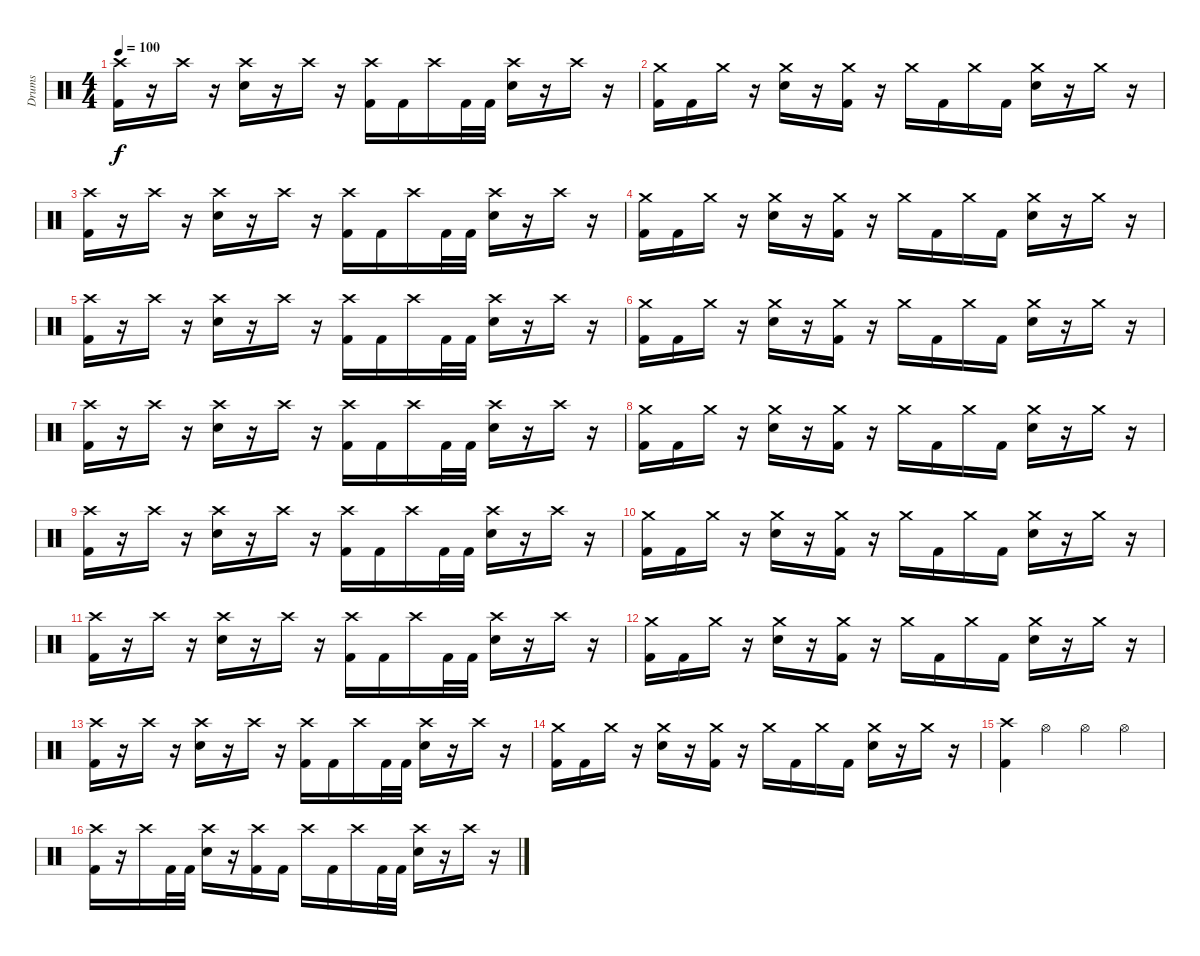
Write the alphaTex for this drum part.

\track ("Drums" "Drums") {instrument percussion}
\staff {score}
\articulation defaults
\ts (4 4)
\tempo 100
\clef neutral
\ks c
("Crash high (hit)" "Kick (hit) 2").16{dy f} r.16 "Crash high (hit)".16 r.16 ("Crash high (hit)" "Snare (hit) 2").16 r.16 "Crash high (hit)".16 r.16 ("Crash high (hit)" "Kick (hit) 2").16 "Kick (hit) 2".16 "Crash high (hit)".16 "Kick (hit) 2".32 "Kick (hit) 2".32 ("Crash high (hit)" "Snare (hit) 2").16 r.16 "Crash high (hit)".16 r.16 |
("Crash medium (hit)" "Kick (hit) 2").16 "Kick (hit) 2".16 "Crash medium (hit)".16 r.16 ("Crash medium (hit)" "Snare (hit) 2").16 r.16 ("Crash medium (hit)" "Kick (hit) 2").16 r.16 "Crash medium (hit)".16 "Kick (hit) 2".16 "Crash medium (hit)".16 "Kick (hit) 2".16 ("Crash medium (hit)" "Snare (hit) 2").16 r.16 "Crash medium (hit)".16 r.16 |
("Crash high (hit)" "Kick (hit) 2").16 r.16 "Crash high (hit)".16 r.16 ("Crash high (hit)" "Snare (hit) 2").16 r.16 "Crash high (hit)".16 r.16 ("Crash high (hit)" "Kick (hit) 2").16 "Kick (hit) 2".16 "Crash high (hit)".16 "Kick (hit) 2".32 "Kick (hit) 2".32 ("Crash high (hit)" "Snare (hit) 2").16 r.16 "Crash high (hit)".16 r.16 |
("Crash medium (hit)" "Kick (hit) 2").16 "Kick (hit) 2".16 "Crash medium (hit)".16 r.16 ("Crash medium (hit)" "Snare (hit) 2").16 r.16 ("Crash medium (hit)" "Kick (hit) 2").16 r.16 "Crash medium (hit)".16 "Kick (hit) 2".16 "Crash medium (hit)".16 "Kick (hit) 2".16 ("Crash medium (hit)" "Snare (hit) 2").16 r.16 "Crash medium (hit)".16 r.16 |
("Crash high (hit)" "Kick (hit) 2").16 r.16 "Crash high (hit)".16 r.16 ("Crash high (hit)" "Snare (hit) 2").16 r.16 "Crash high (hit)".16 r.16 ("Crash high (hit)" "Kick (hit) 2").16 "Kick (hit) 2".16 "Crash high (hit)".16 "Kick (hit) 2".32 "Kick (hit) 2".32 ("Crash high (hit)" "Snare (hit) 2").16 r.16 "Crash high (hit)".16 r.16 |
("Crash medium (hit)" "Kick (hit) 2").16 "Kick (hit) 2".16 "Crash medium (hit)".16 r.16 ("Crash medium (hit)" "Snare (hit) 2").16 r.16 ("Crash medium (hit)" "Kick (hit) 2").16 r.16 "Crash medium (hit)".16 "Kick (hit) 2".16 "Crash medium (hit)".16 "Kick (hit) 2".16 ("Crash medium (hit)" "Snare (hit) 2").16 r.16 "Crash medium (hit)".16 r.16 |
("Crash high (hit)" "Kick (hit) 2").16 r.16 "Crash high (hit)".16 r.16 ("Crash high (hit)" "Snare (hit) 2").16 r.16 "Crash high (hit)".16 r.16 ("Crash high (hit)" "Kick (hit) 2").16 "Kick (hit) 2".16 "Crash high (hit)".16 "Kick (hit) 2".32 "Kick (hit) 2".32 ("Crash high (hit)" "Snare (hit) 2").16 r.16 "Crash high (hit)".16 r.16 |
("Crash medium (hit)" "Kick (hit) 2").16 "Kick (hit) 2".16 "Crash medium (hit)".16 r.16 ("Crash medium (hit)" "Snare (hit) 2").16 r.16 ("Crash medium (hit)" "Kick (hit) 2").16 r.16 "Crash medium (hit)".16 "Kick (hit) 2".16 "Crash medium (hit)".16 "Kick (hit) 2".16 ("Crash medium (hit)" "Snare (hit) 2").16 r.16 "Crash medium (hit)".16 r.16 |
("Crash high (hit)" "Kick (hit) 2").16 r.16 "Crash high (hit)".16 r.16 ("Crash high (hit)" "Snare (hit) 2").16 r.16 "Crash high (hit)".16 r.16 ("Crash high (hit)" "Kick (hit) 2").16 "Kick (hit) 2".16 "Crash high (hit)".16 "Kick (hit) 2".32 "Kick (hit) 2".32 ("Crash high (hit)" "Snare (hit) 2").16 r.16 "Crash high (hit)".16 r.16 |
("Crash medium (hit)" "Kick (hit) 2").16 "Kick (hit) 2".16 "Crash medium (hit)".16 r.16 ("Crash medium (hit)" "Snare (hit) 2").16 r.16 ("Crash medium (hit)" "Kick (hit) 2").16 r.16 "Crash medium (hit)".16 "Kick (hit) 2".16 "Crash medium (hit)".16 "Kick (hit) 2".16 ("Crash medium (hit)" "Snare (hit) 2").16 r.16 "Crash medium (hit)".16 r.16 |
("Crash high (hit)" "Kick (hit) 2").16 r.16 "Crash high (hit)".16 r.16 ("Crash high (hit)" "Snare (hit) 2").16 r.16 "Crash high (hit)".16 r.16 ("Crash high (hit)" "Kick (hit) 2").16 "Kick (hit) 2".16 "Crash high (hit)".16 "Kick (hit) 2".32 "Kick (hit) 2".32 ("Crash high (hit)" "Snare (hit) 2").16 r.16 "Crash high (hit)".16 r.16 |
("Crash medium (hit)" "Kick (hit) 2").16 "Kick (hit) 2".16 "Crash medium (hit)".16 r.16 ("Crash medium (hit)" "Snare (hit) 2").16 r.16 ("Crash medium (hit)" "Kick (hit) 2").16 r.16 "Crash medium (hit)".16 "Kick (hit) 2".16 "Crash medium (hit)".16 "Kick (hit) 2".16 ("Crash medium (hit)" "Snare (hit) 2").16 r.16 "Crash medium (hit)".16 r.16 |
("Crash high (hit)" "Kick (hit) 2").16 r.16 "Crash high (hit)".16 r.16 ("Crash high (hit)" "Snare (hit) 2").16 r.16 "Crash high (hit)".16 r.16 ("Crash high (hit)" "Kick (hit) 2").16 "Kick (hit) 2".16 "Crash high (hit)".16 "Kick (hit) 2".32 "Kick (hit) 2".32 ("Crash high (hit)" "Snare (hit) 2").16 r.16 "Crash high (hit)".16 r.16 |
("Crash medium (hit)" "Kick (hit) 2").16 "Kick (hit) 2".16 "Crash medium (hit)".16 r.16 ("Crash medium (hit)" "Snare (hit) 2").16 r.16 ("Crash medium (hit)" "Kick (hit) 2").16 r.16 "Crash medium (hit)".16 "Kick (hit) 2".16 "Crash medium (hit)".16 "Kick (hit) 2".16 ("Crash medium (hit)" "Snare (hit) 2").16 r.16 "Crash medium (hit)".16 r.16 |
("Crash high (hit)" "Kick (hit) 2").4 "Hi-Hat (open)".4 "Hi-Hat (open)".4 "Hi-Hat (open)".4 |
("Crash high (hit)" "Kick (hit) 2").16 r.16 "Crash high (hit)".16 "Kick (hit) 2".32 "Kick (hit) 2".32 ("Crash high (hit)" "Snare (hit) 2").16 r.16 ("Crash high (hit)" "Kick (hit) 2").16 "Kick (hit) 2".16 "Crash high (hit)".16 "Kick (hit) 2".16 "Crash high (hit)".16 "Kick (hit) 2".32 "Kick (hit) 2".32 ("Crash high (hit)" "Snare (hit) 2").16 r.16 "Crash high (hit)".16 r.16
